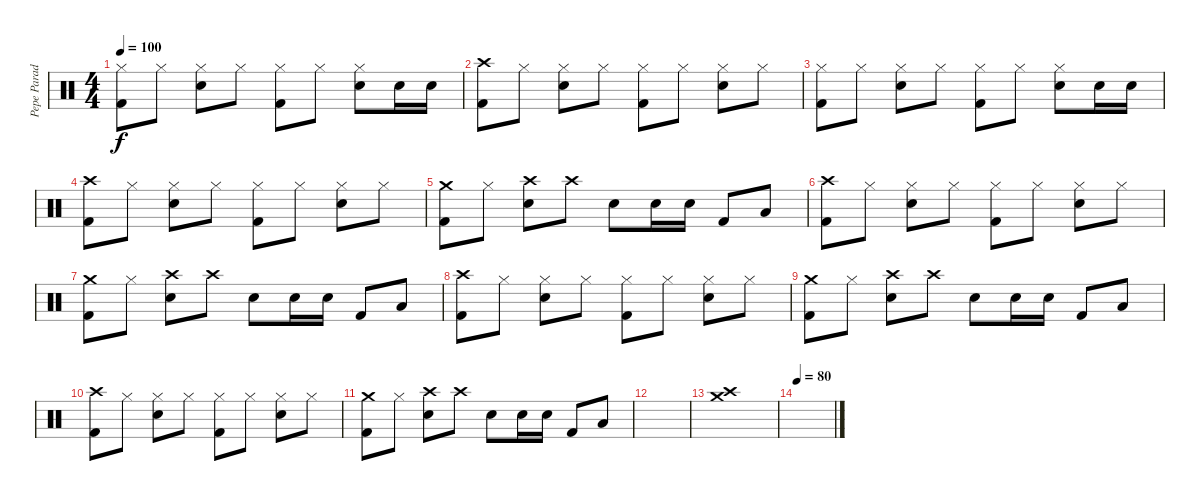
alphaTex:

\track ("Pepe Parada (kit de percusion)" "Pepe Parad") {instrument percussion}
\staff {score}
\articulation defaults
\ts (4 4)
\tempo 100
\clef neutral
\ks c
("Hi-Hat (closed)" "Kick (hit) 2").8{dy f} "Hi-Hat (closed)".8 ("Hi-Hat (closed)" "Snare (hit) 2").8 "Hi-Hat (closed)".8 ("Hi-Hat (closed)" "Kick (hit) 2").8 "Hi-Hat (closed)".8 ("Hi-Hat (closed)" "Snare (hit) 2").8 "Snare (hit) 2".16 "Snare (hit) 2".16 |
("Crash high (hit)" "Kick (hit) 2").8 "Hi-Hat (closed)".8 ("Hi-Hat (closed)" "Snare (hit) 2").8 "Hi-Hat (closed)".8 ("Hi-Hat (closed)" "Kick (hit) 2").8 "Hi-Hat (closed)".8 ("Hi-Hat (closed)" "Snare (hit) 2").8 "Hi-Hat (closed)".8 |
("Hi-Hat (closed)" "Kick (hit) 2").8 "Hi-Hat (closed)".8 ("Hi-Hat (closed)" "Snare (hit) 2").8 "Hi-Hat (closed)".8 ("Hi-Hat (closed)" "Kick (hit) 2").8 "Hi-Hat (closed)".8 ("Hi-Hat (closed)" "Snare (hit) 2").8 "Snare (hit) 2".16 "Snare (hit) 2".16 |
("Crash high (hit)" "Kick (hit) 2").8 "Hi-Hat (closed)".8 ("Hi-Hat (closed)" "Snare (hit) 2").8 "Hi-Hat (closed)".8 ("Hi-Hat (closed)" "Kick (hit) 2").8 "Hi-Hat (closed)".8 ("Hi-Hat (closed)" "Snare (hit) 2").8 "Hi-Hat (closed)".8 |
("Crash medium (hit)" "Kick (hit) 2").8 "Hi-Hat (closed)".8 ("Crash high (hit)" "Snare (hit) 2").8 "Crash high (hit)".8 "Snare (hit) 2".8 "Snare (hit) 2".16 "Snare (hit) 2".16 "Kick (hit) 2".8 "Low Floor Tom (hit)".8 |
("Crash high (hit)" "Kick (hit) 2").8 "Hi-Hat (closed)".8 ("Hi-Hat (closed)" "Snare (hit) 2").8 "Hi-Hat (closed)".8 ("Hi-Hat (closed)" "Kick (hit) 2").8 "Hi-Hat (closed)".8 ("Hi-Hat (closed)" "Snare (hit) 2").8 "Hi-Hat (closed)".8 |
("Crash medium (hit)" "Kick (hit) 2").8 "Hi-Hat (closed)".8 ("Crash high (hit)" "Snare (hit) 2").8 "Crash high (hit)".8 "Snare (hit) 2".8 "Snare (hit) 2".16 "Snare (hit) 2".16 "Kick (hit) 2".8 "Low Floor Tom (hit)".8 |
("Crash high (hit)" "Kick (hit) 2").8 "Hi-Hat (closed)".8 ("Hi-Hat (closed)" "Snare (hit) 2").8 "Hi-Hat (closed)".8 ("Hi-Hat (closed)" "Kick (hit) 2").8 "Hi-Hat (closed)".8 ("Hi-Hat (closed)" "Snare (hit) 2").8 "Hi-Hat (closed)".8 |
("Crash medium (hit)" "Kick (hit) 2").8 "Hi-Hat (closed)".8 ("Crash high (hit)" "Snare (hit) 2").8 "Crash high (hit)".8 "Snare (hit) 2".8 "Snare (hit) 2".16 "Snare (hit) 2".16 "Kick (hit) 2".8 "Low Floor Tom (hit)".8 |
("Crash high (hit)" "Kick (hit) 2").8 "Hi-Hat (closed)".8 ("Hi-Hat (closed)" "Snare (hit) 2").8 "Hi-Hat (closed)".8 ("Hi-Hat (closed)" "Kick (hit) 2").8 "Hi-Hat (closed)".8 ("Hi-Hat (closed)" "Snare (hit) 2").8 "Hi-Hat (closed)".8 |
("Crash medium (hit)" "Kick (hit) 2").8 "Hi-Hat (closed)".8 ("Crash high (hit)" "Snare (hit) 2").8 "Crash high (hit)".8 "Snare (hit) 2".8 "Snare (hit) 2".16 "Snare (hit) 2".16 "Kick (hit) 2".8 "Low Floor Tom (hit)".8 |
|
("Crash medium (hit)" "Crash high (hit)").1 |
\tempo 80
